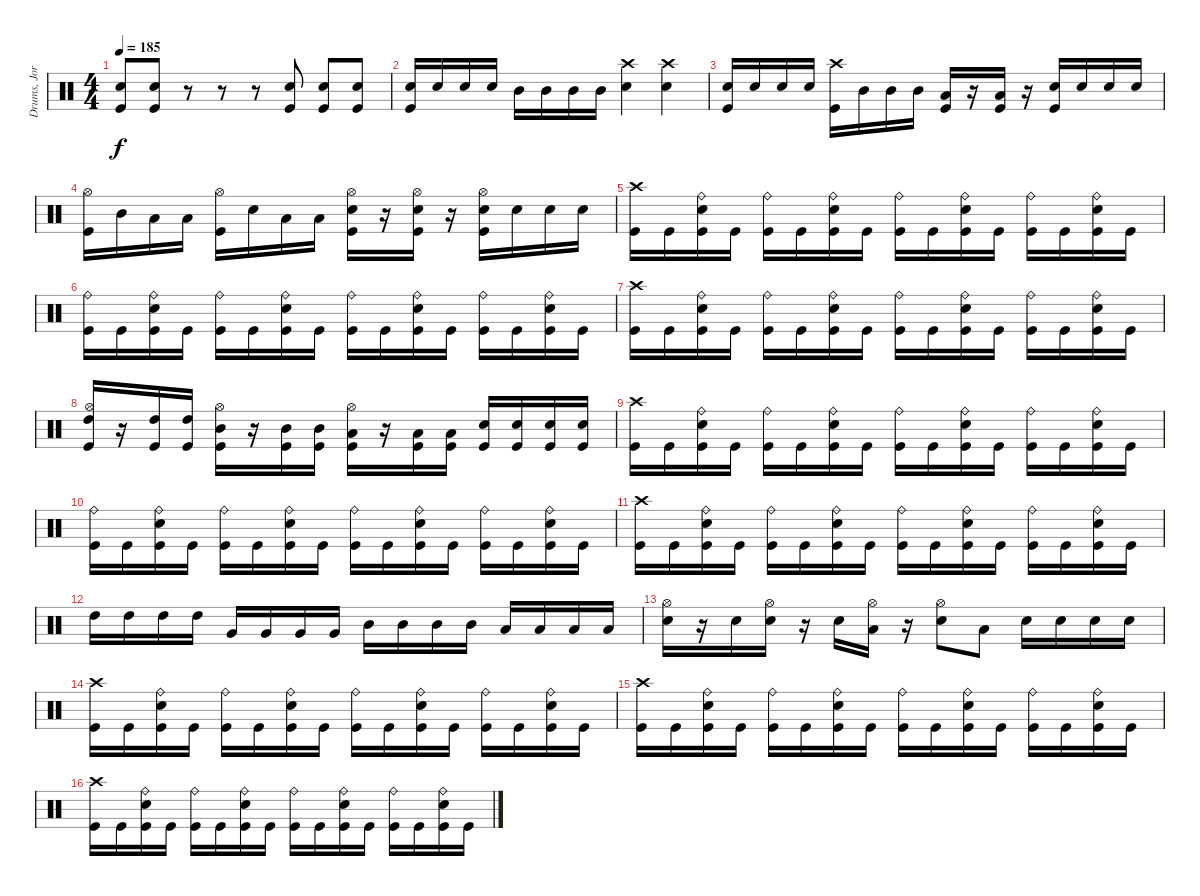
\track ("Drums, Jorye Sáez" "Drums, Jor") {instrument percussion}
\staff {score}
\articulation defaults
\ts (4 4)
\tempo 185
\clef neutral
\ks c
("Kick (hit)" "Electric Snare (hit)").8{dy f} ("Electric Snare (hit)" "Kick (hit)").8 r.8 r.8 r.8 ("Electric Snare (hit)" "Kick (hit)").8 ("Kick (hit)" "Electric Snare (hit)").8 ("Electric Snare (hit)" "Kick (hit)").8 |
("Kick (hit)" "Electric Snare (hit)").16 "Electric Snare (hit)".16 "Electric Snare (hit)".16 "Electric Snare (hit)".16 "Mid Tom (hit)".16 "Mid Tom (hit)".16 "Mid Tom (hit)".16 "Mid Tom (hit)".16 ("Crash high (hit)" "Electric Snare (hit)").4 ("Crash high (hit)" "Electric Snare (hit)").4 |
("Kick (hit)" "Electric Snare (hit)").16 "Electric Snare (hit)".16 "Electric Snare (hit)".16 "Electric Snare (hit)".16 ("Kick (hit)" "Crash high (hit)").16 "Mid Tom (hit)".16 "Mid Tom (hit)".16 "Mid Tom (hit)".16 ("Low Tom (hit)" "Kick (hit)").16 r.16 ("Low Tom (hit)" "Kick (hit)").16 r.16 ("Electric Snare (hit)" "Kick (hit)").16 "Electric Snare (hit)".16 "Electric Snare (hit)".16 "Electric Snare (hit)".16 |
("Hi-Hat (open)" "Kick (hit)").16 "Mid Tom (hit)".16 "Low Tom (hit)".16 "Low Tom (hit)".16 ("Hi-Hat (open)" "Kick (hit)").16 "Electric Snare (hit)".16 "Low Tom (hit)".16 "Low Tom (hit)".16 ("Hi-Hat (open)" "Electric Snare (hit)" "Kick (hit)").16 r.16 ("Hi-Hat (open)" "Electric Snare (hit)" "Kick (hit)").16 r.16 ("Hi-Hat (open)" "Electric Snare (hit)" "Kick (hit)").16 "Electric Snare (hit)".16 "Electric Snare (hit)".16 "Electric Snare (hit)".16 |
("Crash high (hit)" "Kick (hit)").16 "Kick (hit)".16 ("Ride (bell)" "Electric Snare (hit)" "Kick (hit)").16 "Kick (hit)".16 ("Ride (bell)" "Kick (hit)").16 "Kick (hit)".16 ("Ride (bell)" "Electric Snare (hit)" "Kick (hit)").16 "Kick (hit)".16 ("Ride (bell)" "Kick (hit)").16 "Kick (hit)".16 ("Ride (bell)" "Electric Snare (hit)" "Kick (hit)").16 "Kick (hit)".16 ("Ride (bell)" "Kick (hit)").16 "Kick (hit)".16 ("Ride (bell)" "Electric Snare (hit)" "Kick (hit)").16 "Kick (hit)".16 |
("Ride (bell)" "Kick (hit)").16 "Kick (hit)".16 ("Ride (bell)" "Electric Snare (hit)" "Kick (hit)").16 "Kick (hit)".16 ("Ride (bell)" "Kick (hit)").16 "Kick (hit)".16 ("Ride (bell)" "Electric Snare (hit)" "Kick (hit)").16 "Kick (hit)".16 ("Ride (bell)" "Kick (hit)").16 "Kick (hit)".16 ("Ride (bell)" "Electric Snare (hit)" "Kick (hit)").16 "Kick (hit)".16 ("Ride (bell)" "Kick (hit)").16 "Kick (hit)".16 ("Ride (bell)" "Electric Snare (hit)" "Kick (hit)").16 "Kick (hit)".16 |
("Crash high (hit)" "Kick (hit)").16 "Kick (hit)".16 ("Ride (bell)" "Electric Snare (hit)" "Kick (hit)").16 "Kick (hit)".16 ("Ride (bell)" "Kick (hit)").16 "Kick (hit)".16 ("Ride (bell)" "Electric Snare (hit)" "Kick (hit)").16 "Kick (hit)".16 ("Ride (bell)" "Kick (hit)").16 "Kick (hit)".16 ("Ride (bell)" "Electric Snare (hit)" "Kick (hit)").16 "Kick (hit)".16 ("Ride (bell)" "Kick (hit)").16 "Kick (hit)".16 ("Ride (bell)" "Electric Snare (hit)" "Kick (hit)").16 "Kick (hit)".16 |
("Hi-Hat (open)" "High Tom (hit)" "Kick (hit)").16 r.16 ("High Tom (hit)" "Kick (hit)").16 ("High Tom (hit)" "Kick (hit)").16 ("Hi-Hat (open)" "Mid Tom (hit)" "Kick (hit)").16 r.16 ("Mid Tom (hit)" "Kick (hit)").16 ("Mid Tom (hit)" "Kick (hit)").16 ("Hi-Hat (open)" "Low Tom (hit)" "Kick (hit)").16 r.16 ("Low Tom (hit)" "Kick (hit)").16 ("Low Tom (hit)" "Kick (hit)").16 ("Electric Snare (hit)" "Kick (hit)").16 ("Electric Snare (hit)" "Kick (hit)").16 ("Electric Snare (hit)" "Kick (hit)").16 ("Electric Snare (hit)" "Kick (hit)").16 |
("Crash high (hit)" "Kick (hit)").16 "Kick (hit)".16 ("Ride (bell)" "Electric Snare (hit)" "Kick (hit)").16 "Kick (hit)".16 ("Ride (bell)" "Kick (hit)").16 "Kick (hit)".16 ("Ride (bell)" "Electric Snare (hit)" "Kick (hit)").16 "Kick (hit)".16 ("Ride (bell)" "Kick (hit)").16 "Kick (hit)".16 ("Ride (bell)" "Electric Snare (hit)" "Kick (hit)").16 "Kick (hit)".16 ("Ride (bell)" "Kick (hit)").16 "Kick (hit)".16 ("Ride (bell)" "Electric Snare (hit)" "Kick (hit)").16 "Kick (hit)".16 |
("Ride (bell)" "Kick (hit)").16 "Kick (hit)".16 ("Ride (bell)" "Electric Snare (hit)" "Kick (hit)").16 "Kick (hit)".16 ("Ride (bell)" "Kick (hit)").16 "Kick (hit)".16 ("Ride (bell)" "Electric Snare (hit)" "Kick (hit)").16 "Kick (hit)".16 ("Ride (bell)" "Kick (hit)").16 "Kick (hit)".16 ("Ride (bell)" "Electric Snare (hit)" "Kick (hit)").16 "Kick (hit)".16 ("Ride (bell)" "Kick (hit)").16 "Kick (hit)".16 ("Ride (bell)" "Electric Snare (hit)" "Kick (hit)").16 "Kick (hit)".16 |
("Crash high (hit)" "Kick (hit)").16 "Kick (hit)".16 ("Ride (bell)" "Electric Snare (hit)" "Kick (hit)").16 "Kick (hit)".16 ("Ride (bell)" "Kick (hit)").16 "Kick (hit)".16 ("Ride (bell)" "Electric Snare (hit)" "Kick (hit)").16 "Kick (hit)".16 ("Ride (bell)" "Kick (hit)").16 "Kick (hit)".16 ("Ride (bell)" "Electric Snare (hit)" "Kick (hit)").16 "Kick (hit)".16 ("Ride (bell)" "Kick (hit)").16 "Kick (hit)".16 ("Ride (bell)" "Electric Snare (hit)" "Kick (hit)").16 "Kick (hit)".16 |
"High Tom (hit)".16 "High Tom (hit)".16 "High Tom (hit)".16 "High Tom (hit)".16 "Very Low Tom (hit)".16 "Very Low Tom (hit)".16 "Very Low Tom (hit)".16 "Very Low Tom (hit)".16 "Mid Tom (hit)".16 "Mid Tom (hit)".16 "Mid Tom (hit)".16 "Mid Tom (hit)".16 "Low Tom (hit)".16 "Low Tom (hit)".16 "Low Tom (hit)".16 "Low Tom (hit)".16 |
("Hi-Hat (open)" "Electric Snare (hit)").16 r.16 "Electric Snare (hit)".16 ("Hi-Hat (open)" "Electric Snare (hit)").16 r.16 "Electric Snare (hit)".16 ("Hi-Hat (open)" "Low Tom (hit)").16 r.16 ("Hi-Hat (open)" "Electric Snare (hit)").8 "Low Tom (hit)".8 "Electric Snare (hit)".16 "Electric Snare (hit)".16 "Electric Snare (hit)".16 "Electric Snare (hit)".16 |
("Crash high (hit)" "Kick (hit)").16 "Kick (hit)".16 ("Ride (bell)" "Electric Snare (hit)" "Kick (hit)").16 "Kick (hit)".16 ("Ride (bell)" "Kick (hit)").16 "Kick (hit)".16 ("Ride (bell)" "Electric Snare (hit)" "Kick (hit)").16 "Kick (hit)".16 ("Ride (bell)" "Kick (hit)").16 "Kick (hit)".16 ("Ride (bell)" "Electric Snare (hit)" "Kick (hit)").16 "Kick (hit)".16 ("Ride (bell)" "Kick (hit)").16 "Kick (hit)".16 ("Ride (bell)" "Electric Snare (hit)" "Kick (hit)").16 "Kick (hit)".16 |
("Crash high (hit)" "Kick (hit)").16 "Kick (hit)".16 ("Ride (bell)" "Electric Snare (hit)" "Kick (hit)").16 "Kick (hit)".16 ("Ride (bell)" "Kick (hit)").16 "Kick (hit)".16 ("Ride (bell)" "Electric Snare (hit)" "Kick (hit)").16 "Kick (hit)".16 ("Ride (bell)" "Kick (hit)").16 "Kick (hit)".16 ("Ride (bell)" "Electric Snare (hit)" "Kick (hit)").16 "Kick (hit)".16 ("Ride (bell)" "Kick (hit)").16 "Kick (hit)".16 ("Ride (bell)" "Electric Snare (hit)" "Kick (hit)").16 "Kick (hit)".16 |
("Crash high (hit)" "Kick (hit)").16 "Kick (hit)".16 ("Ride (bell)" "Electric Snare (hit)" "Kick (hit)").16 "Kick (hit)".16 ("Ride (bell)" "Kick (hit)").16 "Kick (hit)".16 ("Ride (bell)" "Electric Snare (hit)" "Kick (hit)").16 "Kick (hit)".16 ("Ride (bell)" "Kick (hit)").16 "Kick (hit)".16 ("Ride (bell)" "Electric Snare (hit)" "Kick (hit)").16 "Kick (hit)".16 ("Ride (bell)" "Kick (hit)").16 "Kick (hit)".16 ("Ride (bell)" "Electric Snare (hit)" "Kick (hit)").16 "Kick (hit)".16
